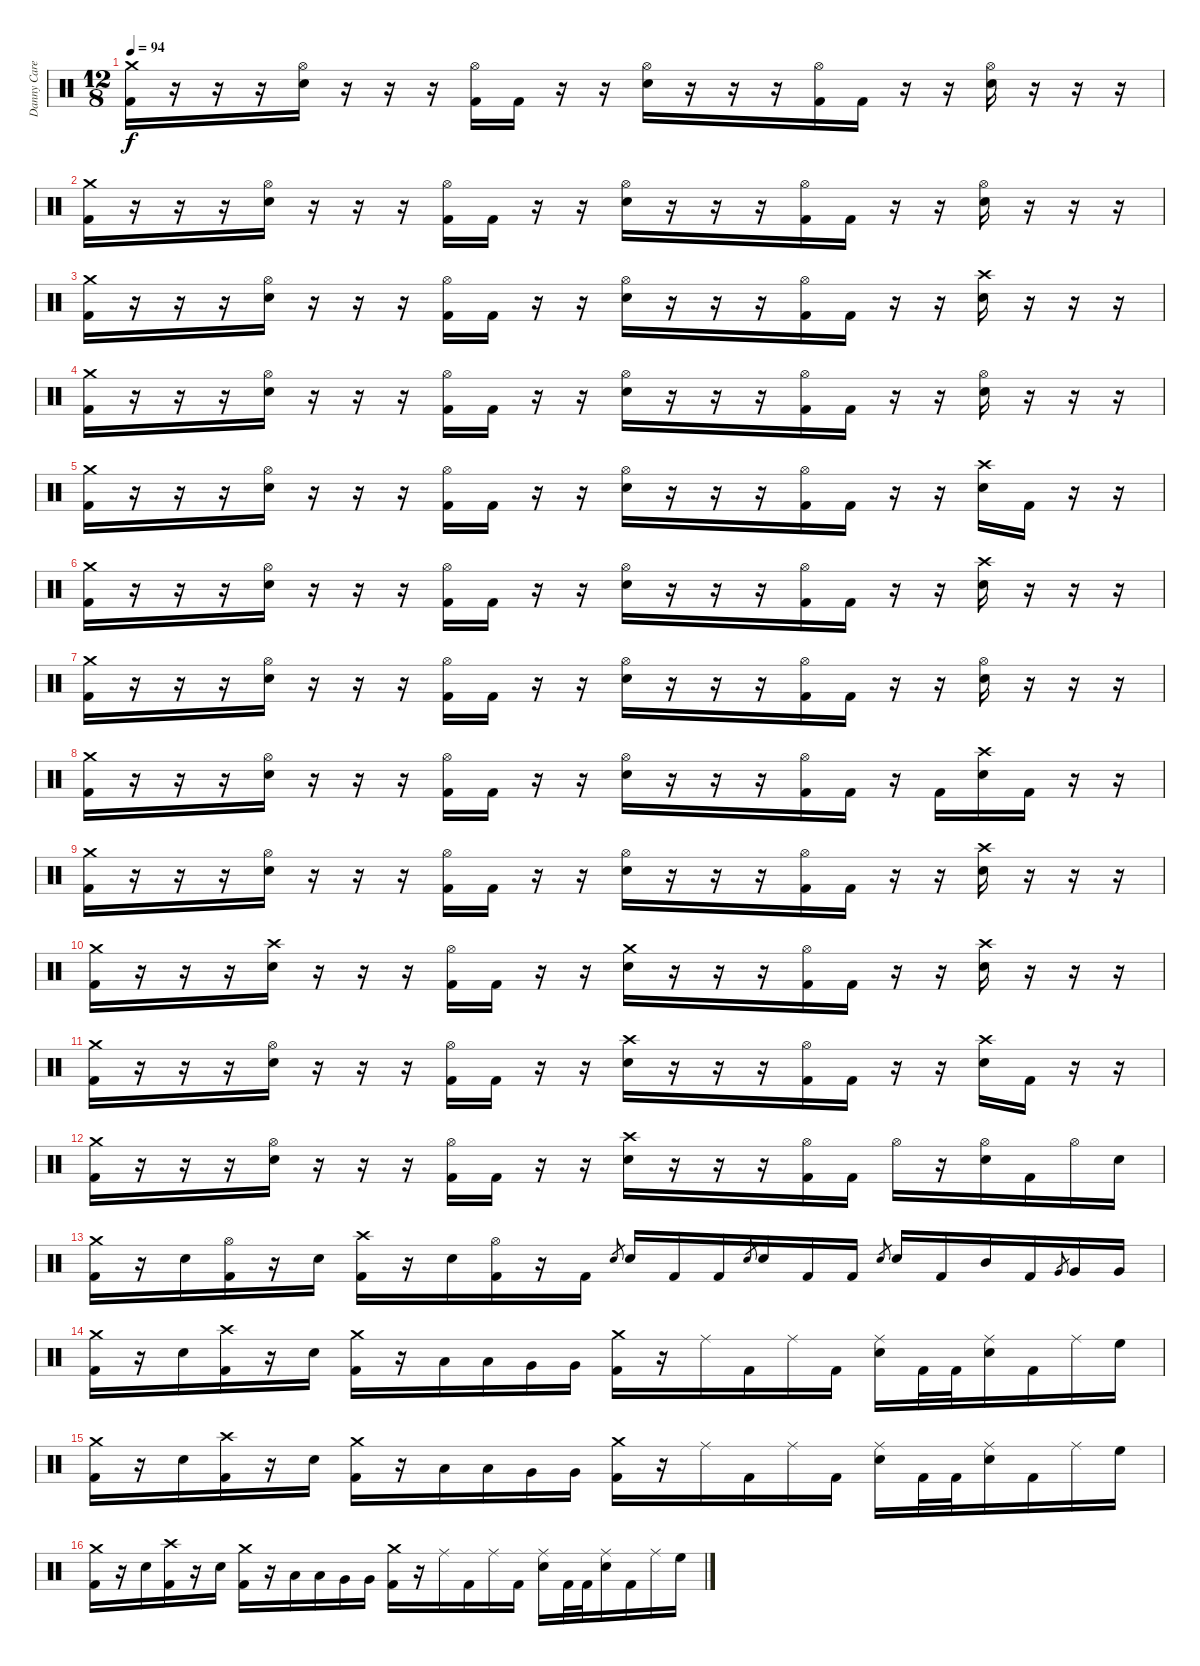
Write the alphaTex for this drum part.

\track ("Danny Carey" "Danny Care") {instrument percussion}
\staff {score}
\articulation defaults
\ts (12 8)
\tempo 94
\clef neutral
\ks c
("Crash medium (hit)" "Kick (hit) 2").16{dy f} r.16 r.16 r.16 ("Hi-Hat (open)" "Electric Snare (hit)").16 r.16 r.16 r.16 ("Hi-Hat (open)" "Kick (hit) 2").16 "Kick (hit) 2".16 r.16 r.16 ("Hi-Hat (open)" "Electric Snare (hit)").16 r.16 r.16 r.16 ("Hi-Hat (open)" "Kick (hit) 2").16 "Kick (hit) 2".16 r.16 r.16 ("Hi-Hat (open)" "Electric Snare (hit)").16 r.16 r.16 r.16 |
("Crash medium (hit)" "Kick (hit) 2").16 r.16 r.16 r.16 ("Hi-Hat (open)" "Electric Snare (hit)").16 r.16 r.16 r.16 ("Hi-Hat (open)" "Kick (hit) 2").16 "Kick (hit) 2".16 r.16 r.16 ("Hi-Hat (open)" "Electric Snare (hit)").16 r.16 r.16 r.16 ("Hi-Hat (open)" "Kick (hit) 2").16 "Kick (hit) 2".16 r.16 r.16 ("Hi-Hat (open)" "Electric Snare (hit)").16 r.16 r.16 r.16 |
("Crash medium (hit)" "Kick (hit) 2").16 r.16 r.16 r.16 ("Hi-Hat (open)" "Electric Snare (hit)").16 r.16 r.16 r.16 ("Hi-Hat (open)" "Kick (hit) 2").16 "Kick (hit) 2".16 r.16 r.16 ("Hi-Hat (open)" "Electric Snare (hit)").16 r.16 r.16 r.16 ("Hi-Hat (open)" "Kick (hit) 2").16 "Kick (hit) 2".16 r.16 r.16 ("Crash high (hit)" "Electric Snare (hit)").16 r.16 r.16 r.16 |
("Crash medium (hit)" "Kick (hit) 2").16 r.16 r.16 r.16 ("Hi-Hat (open)" "Electric Snare (hit)").16 r.16 r.16 r.16 ("Hi-Hat (open)" "Kick (hit) 2").16 "Kick (hit) 2".16 r.16 r.16 ("Hi-Hat (open)" "Electric Snare (hit)").16 r.16 r.16 r.16 ("Hi-Hat (open)" "Kick (hit) 2").16 "Kick (hit) 2".16 r.16 r.16 ("Hi-Hat (open)" "Electric Snare (hit)").16 r.16 r.16 r.16 |
("Crash medium (hit)" "Kick (hit) 2").16 r.16 r.16 r.16 ("Hi-Hat (open)" "Electric Snare (hit)").16 r.16 r.16 r.16 ("Hi-Hat (open)" "Kick (hit) 2").16 "Kick (hit) 2".16 r.16 r.16 ("Hi-Hat (open)" "Electric Snare (hit)").16 r.16 r.16 r.16 ("Hi-Hat (open)" "Kick (hit) 2").16 "Kick (hit) 2".16 r.16 r.16 ("Crash high (hit)" "Electric Snare (hit)").16 "Kick (hit) 2".16 r.16 r.16 |
("Crash medium (hit)" "Kick (hit) 2").16 r.16 r.16 r.16 ("Hi-Hat (open)" "Electric Snare (hit)").16 r.16 r.16 r.16 ("Hi-Hat (open)" "Kick (hit) 2").16 "Kick (hit) 2".16 r.16 r.16 ("Hi-Hat (open)" "Electric Snare (hit)").16 r.16 r.16 r.16 ("Hi-Hat (open)" "Kick (hit) 2").16 "Kick (hit) 2".16 r.16 r.16 ("Crash high (hit)" "Electric Snare (hit)").16 r.16 r.16 r.16 |
("Crash medium (hit)" "Kick (hit) 2").16 r.16 r.16 r.16 ("Hi-Hat (open)" "Electric Snare (hit)").16 r.16 r.16 r.16 ("Hi-Hat (open)" "Kick (hit) 2").16 "Kick (hit) 2".16 r.16 r.16 ("Hi-Hat (open)" "Electric Snare (hit)").16 r.16 r.16 r.16 ("Hi-Hat (open)" "Kick (hit) 2").16 "Kick (hit) 2".16 r.16 r.16 ("Hi-Hat (open)" "Electric Snare (hit)").16 r.16 r.16 r.16 |
("Crash medium (hit)" "Kick (hit) 2").16 r.16 r.16 r.16 ("Hi-Hat (open)" "Electric Snare (hit)").16 r.16 r.16 r.16 ("Hi-Hat (open)" "Kick (hit) 2").16 "Kick (hit) 2".16 r.16 r.16 ("Hi-Hat (open)" "Electric Snare (hit)").16 r.16 r.16 r.16 ("Hi-Hat (open)" "Kick (hit) 2").16 "Kick (hit) 2".16 r.16 "Kick (hit) 2".16 ("Crash high (hit)" "Electric Snare (hit)").16 "Kick (hit) 2".16 r.16 r.16 |
("Crash medium (hit)" "Kick (hit) 2").16 r.16 r.16 r.16 ("Hi-Hat (open)" "Electric Snare (hit)").16 r.16 r.16 r.16 ("Hi-Hat (open)" "Kick (hit) 2").16 "Kick (hit) 2".16 r.16 r.16 ("Hi-Hat (open)" "Electric Snare (hit)").16 r.16 r.16 r.16 ("Hi-Hat (open)" "Kick (hit) 2").16 "Kick (hit) 2".16 r.16 r.16 ("Crash high (hit)" "Electric Snare (hit)").16 r.16 r.16 r.16 |
("Crash medium (hit)" "Kick (hit) 2").16 r.16 r.16 r.16 ("Crash high (hit)" "Electric Snare (hit)").16 r.16 r.16 r.16 ("Hi-Hat (open)" "Kick (hit) 2").16 "Kick (hit) 2".16 r.16 r.16 ("Crash medium (hit)" "Electric Snare (hit)").16 r.16 r.16 r.16 ("Hi-Hat (open)" "Kick (hit) 2").16 "Kick (hit) 2".16 r.16 r.16 ("Crash high (hit)" "Electric Snare (hit)").16 r.16 r.16 r.16 |
("Crash medium (hit)" "Kick (hit) 2").16 r.16 r.16 r.16 ("Hi-Hat (open)" "Electric Snare (hit)").16 r.16 r.16 r.16 ("Hi-Hat (open)" "Kick (hit) 2").16 "Kick (hit) 2".16 r.16 r.16 ("Crash high (hit)" "Electric Snare (hit)").16 r.16 r.16 r.16 ("Hi-Hat (open)" "Kick (hit) 2").16 "Kick (hit) 2".16 r.16 r.16 ("Crash high (hit)" "Electric Snare (hit)").16 "Kick (hit) 2".16 r.16 r.16 |
("Crash medium (hit)" "Kick (hit) 2").16 r.16 r.16 r.16 ("Hi-Hat (open)" "Electric Snare (hit)").16 r.16 r.16 r.16 ("Hi-Hat (open)" "Kick (hit) 2").16 "Kick (hit) 2".16 r.16 r.16 ("Crash high (hit)" "Electric Snare (hit)").16 r.16 r.16 r.16 ("Hi-Hat (open)" "Kick (hit) 2").16 "Kick (hit) 2".16 "Hi-Hat (open)".16 r.16 ("Hi-Hat (open)" "Electric Snare (hit)").16 "Kick (hit) 2".16 "Hi-Hat (open)".16 "Electric Snare (hit)".16 |
("Crash medium (hit)" "Kick (hit) 2").16 r.16 "Electric Snare (hit)".16 ("Hi-Hat (open)" "Kick (hit) 2").16 r.16 "Electric Snare (hit)".16 ("Crash high (hit)" "Kick (hit) 2").16 r.16 "Electric Snare (hit)".16 ("Hi-Hat (open)" "Kick (hit) 2").16 r.16 "Kick (hit) 2".16 "Electric Snare (hit)".8{gr} "Electric Snare (hit)".16 "Kick (hit) 2".16 "Kick (hit) 2".16 "Electric Snare (hit)".8{gr} "Electric Snare (hit)".16 "Kick (hit) 2".16 "Kick (hit) 2".16 "Electric Snare (hit)".8{gr} "Electric Snare (hit)".16 "Kick (hit) 2".16 "Mid Tom (hit)".16 "Kick (hit) 2".16 "Very Low Tom (hit)".8{gr} "Very Low Tom (hit)".16 "Very Low Tom (hit)".16 |
("Crash medium (hit)" "Kick (hit) 2").16 r.16 "Electric Snare (hit)".16 ("Crash high (hit)" "Kick (hit) 2").16 r.16 "Electric Snare (hit)".16 ("Crash medium (hit)" "Kick (hit) 2").16 r.16 "Low Tom (hit)".16 "Low Tom (hit)".16 "Very Low Tom (hit)".16 "Very Low Tom (hit)".16 ("Crash medium (hit)" "Kick (hit) 2").16 r.16 "Ride (middle)".16 "Kick (hit) 2".16 "Ride (middle)".16 "Kick (hit) 2".16 ("Ride (middle)" "Electric Snare (hit)").16 "Kick (hit) 2".32 "Kick (hit) 2".32 ("Ride (middle)" "Electric Snare (hit)").16 "Kick (hit) 2".16 "Ride (middle)".16 "High Floor Tom (hit)".16 |
("Crash medium (hit)" "Kick (hit) 2").16 r.16 "Electric Snare (hit)".16 ("Crash high (hit)" "Kick (hit) 2").16 r.16 "Electric Snare (hit)".16 ("Crash medium (hit)" "Kick (hit) 2").16 r.16 "Low Tom (hit)".16 "Low Tom (hit)".16 "Very Low Tom (hit)".16 "Very Low Tom (hit)".16 ("Crash medium (hit)" "Kick (hit) 2").16 r.16 "Ride (middle)".16 "Kick (hit) 2".16 "Ride (middle)".16 "Kick (hit) 2".16 ("Ride (middle)" "Electric Snare (hit)").16 "Kick (hit) 2".32 "Kick (hit) 2".32 ("Ride (middle)" "Electric Snare (hit)").16 "Kick (hit) 2".16 "Ride (middle)".16 "High Floor Tom (hit)".16 |
("Crash medium (hit)" "Kick (hit) 2").16 r.16 "Electric Snare (hit)".16 ("Crash high (hit)" "Kick (hit) 2").16 r.16 "Electric Snare (hit)".16 ("Crash medium (hit)" "Kick (hit) 2").16 r.16 "Low Tom (hit)".16 "Low Tom (hit)".16 "Very Low Tom (hit)".16 "Very Low Tom (hit)".16 ("Crash medium (hit)" "Kick (hit) 2").16 r.16 "Ride (middle)".16 "Kick (hit) 2".16 "Ride (middle)".16 "Kick (hit) 2".16 ("Ride (middle)" "Electric Snare (hit)").16 "Kick (hit) 2".32 "Kick (hit) 2".32 ("Ride (middle)" "Electric Snare (hit)").16 "Kick (hit) 2".16 "Ride (middle)".16 "High Floor Tom (hit)".16
